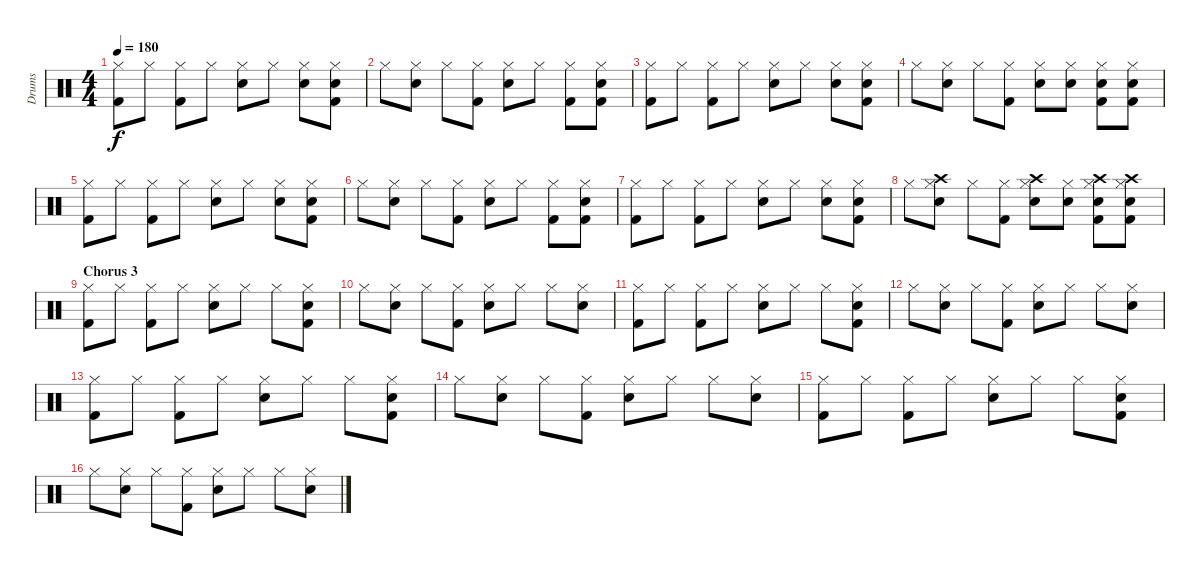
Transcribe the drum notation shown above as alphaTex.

\track ("Drums" "Drums") {instrument percussion}
\staff {score}
\articulation defaults
\ts (4 4)
\tempo 180
\clef neutral
\ks c
("Hi-Hat (closed)" "Kick (hit) 2").8{dy f} "Hi-Hat (closed)".8 ("Hi-Hat (closed)" "Kick (hit) 2").8 "Hi-Hat (closed)".8 ("Hi-Hat (closed)" "Snare (hit) 2").8 "Hi-Hat (closed)".8 ("Hi-Hat (closed)" "Snare (hit) 2").8 ("Hi-Hat (closed)" "Snare (hit) 2" "Kick (hit) 2").8 |
"Hi-Hat (closed)".8 ("Hi-Hat (closed)" "Snare (hit) 2").8 "Hi-Hat (closed)".8 ("Hi-Hat (closed)" "Kick (hit) 2").8 ("Hi-Hat (closed)" "Snare (hit) 2").8 "Hi-Hat (closed)".8 ("Hi-Hat (closed)" "Kick (hit) 2").8 ("Hi-Hat (closed)" "Snare (hit) 2" "Kick (hit) 2").8 |
("Hi-Hat (closed)" "Kick (hit) 2").8 "Hi-Hat (closed)".8 ("Hi-Hat (closed)" "Kick (hit) 2").8 "Hi-Hat (closed)".8 ("Hi-Hat (closed)" "Snare (hit) 2").8 "Hi-Hat (closed)".8 ("Hi-Hat (closed)" "Snare (hit) 2").8 ("Hi-Hat (closed)" "Snare (hit) 2" "Kick (hit) 2").8 |
"Hi-Hat (closed)".8 ("Hi-Hat (closed)" "Snare (hit) 2").8 "Hi-Hat (closed)".8 ("Hi-Hat (closed)" "Kick (hit) 2").8 ("Hi-Hat (closed)" "Snare (hit) 2").8 ("Hi-Hat (closed)" "Snare (hit) 2").8 ("Hi-Hat (closed)" "Snare (hit) 2" "Kick (hit) 2").8 ("Hi-Hat (closed)" "Snare (hit) 2" "Kick (hit) 2").8 |
("Hi-Hat (closed)" "Kick (hit) 2").8 "Hi-Hat (closed)".8 ("Hi-Hat (closed)" "Kick (hit) 2").8 "Hi-Hat (closed)".8 ("Hi-Hat (closed)" "Snare (hit) 2").8 "Hi-Hat (closed)".8 ("Hi-Hat (closed)" "Snare (hit) 2").8 ("Hi-Hat (closed)" "Snare (hit) 2" "Kick (hit) 2").8 |
"Hi-Hat (closed)".8 ("Hi-Hat (closed)" "Snare (hit) 2").8 "Hi-Hat (closed)".8 ("Hi-Hat (closed)" "Kick (hit) 2").8 ("Hi-Hat (closed)" "Snare (hit) 2").8 "Hi-Hat (closed)".8 ("Hi-Hat (closed)" "Kick (hit) 2").8 ("Hi-Hat (closed)" "Snare (hit) 2" "Kick (hit) 2").8 |
("Hi-Hat (closed)" "Kick (hit) 2").8 "Hi-Hat (closed)".8 ("Hi-Hat (closed)" "Kick (hit) 2").8 "Hi-Hat (closed)".8 ("Hi-Hat (closed)" "Snare (hit) 2").8 "Hi-Hat (closed)".8 ("Hi-Hat (closed)" "Snare (hit) 2").8 ("Hi-Hat (closed)" "Snare (hit) 2" "Kick (hit) 2").8 |
"Hi-Hat (closed)".8 ("Hi-Hat (closed)" "Snare (hit) 2" "Crash high (hit)").8 "Hi-Hat (closed)".8 ("Hi-Hat (closed)" "Kick (hit) 2").8 ("Hi-Hat (closed)" "Snare (hit) 2" "Crash high (hit)").8 ("Hi-Hat (closed)" "Snare (hit) 2").8 ("Hi-Hat (closed)" "Snare (hit) 2" "Kick (hit) 2" "Crash high (hit)").8 ("Hi-Hat (closed)" "Snare (hit) 2" "Kick (hit) 2" "Crash high (hit)").8 |
\section ("" "Chorus 3")
("Hi-Hat (closed)" "Kick (hit) 2").8 "Hi-Hat (closed)".8 ("Hi-Hat (closed)" "Kick (hit) 2").8 "Hi-Hat (closed)".8 ("Hi-Hat (closed)" "Snare (hit) 2").8 "Hi-Hat (closed)".8 "Hi-Hat (closed)".8 ("Hi-Hat (closed)" "Snare (hit) 2" "Kick (hit) 2").8 |
"Hi-Hat (closed)".8 ("Hi-Hat (closed)" "Snare (hit) 2").8 "Hi-Hat (closed)".8 ("Hi-Hat (closed)" "Kick (hit) 2").8 ("Hi-Hat (closed)" "Snare (hit) 2").8 "Hi-Hat (closed)".8 "Hi-Hat (closed)".8 ("Hi-Hat (closed)" "Snare (hit) 2").8 |
("Hi-Hat (closed)" "Kick (hit) 2").8 "Hi-Hat (closed)".8 ("Hi-Hat (closed)" "Kick (hit) 2").8 "Hi-Hat (closed)".8 ("Hi-Hat (closed)" "Snare (hit) 2").8 "Hi-Hat (closed)".8 "Hi-Hat (closed)".8 ("Hi-Hat (closed)" "Snare (hit) 2" "Kick (hit) 2").8 |
"Hi-Hat (closed)".8 ("Hi-Hat (closed)" "Snare (hit) 2").8 "Hi-Hat (closed)".8 ("Hi-Hat (closed)" "Kick (hit) 2").8 ("Hi-Hat (closed)" "Snare (hit) 2").8 "Hi-Hat (closed)".8 "Hi-Hat (closed)".8 ("Hi-Hat (closed)" "Snare (hit) 2").8 |
("Hi-Hat (closed)" "Kick (hit) 2").8 "Hi-Hat (closed)".8 ("Hi-Hat (closed)" "Kick (hit) 2").8 "Hi-Hat (closed)".8 ("Hi-Hat (closed)" "Snare (hit) 2").8 "Hi-Hat (closed)".8 "Hi-Hat (closed)".8 ("Hi-Hat (closed)" "Snare (hit) 2" "Kick (hit) 2").8 |
"Hi-Hat (closed)".8 ("Hi-Hat (closed)" "Snare (hit) 2").8 "Hi-Hat (closed)".8 ("Hi-Hat (closed)" "Kick (hit) 2").8 ("Hi-Hat (closed)" "Snare (hit) 2").8 "Hi-Hat (closed)".8 "Hi-Hat (closed)".8 ("Hi-Hat (closed)" "Snare (hit) 2").8 |
("Hi-Hat (closed)" "Kick (hit) 2").8 "Hi-Hat (closed)".8 ("Hi-Hat (closed)" "Kick (hit) 2").8 "Hi-Hat (closed)".8 ("Hi-Hat (closed)" "Snare (hit) 2").8 "Hi-Hat (closed)".8 "Hi-Hat (closed)".8 ("Hi-Hat (closed)" "Snare (hit) 2" "Kick (hit) 2").8 |
"Hi-Hat (closed)".8 ("Hi-Hat (closed)" "Snare (hit) 2").8 "Hi-Hat (closed)".8 ("Hi-Hat (closed)" "Kick (hit) 2").8 ("Hi-Hat (closed)" "Snare (hit) 2").8 "Hi-Hat (closed)".8 "Hi-Hat (closed)".8 ("Hi-Hat (closed)" "Snare (hit) 2").8
